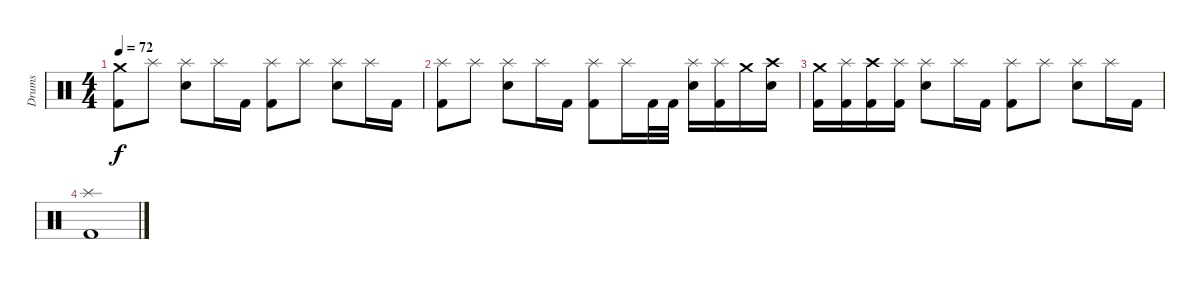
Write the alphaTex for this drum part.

\track ("Drums" "Drums") {instrument percussion}
\staff {score}
\articulation defaults
\ts (4 4)
\tempo 72
\clef neutral
\ks c
("Crash medium (hit)" "Kick (hit) 2").8{dy f} "Splash (hit)".8 ("Splash (hit)" "Electric Snare (hit)").8 "Splash (hit)".16 "Kick (hit) 2".16 ("Splash (hit)" "Kick (hit) 2").8 "Splash (hit)".8 ("Splash (hit)" "Electric Snare (hit)").8 "Splash (hit)".16 "Kick (hit) 2".16 |
("Splash (hit)" "Kick (hit) 2").8 "Splash (hit)".8 ("Splash (hit)" "Electric Snare (hit)").8 "Splash (hit)".16 "Kick (hit) 2".16 ("Splash (hit)" "Kick (hit) 2").8 "Splash (hit)".16 "Kick (hit) 2".32 "Kick (hit) 2".32 ("Splash (hit)" "Electric Snare (hit)").16 ("Splash (hit)" "Kick (hit) 2").16 "Crash medium (hit)".16 ("Crash high (hit)" "Electric Snare (hit)").16 |
("Crash medium (hit)" "Kick (hit) 2").16 ("Splash (hit)" "Kick (hit) 2").16 ("Crash high (hit)" "Kick (hit) 2").16 ("Splash (hit)" "Kick (hit) 2").16 ("Splash (hit)" "Electric Snare (hit)").8 "Splash (hit)".16 "Kick (hit) 2".16 ("Splash (hit)" "Kick (hit) 2").8 "Splash (hit)".8 ("Splash (hit)" "Electric Snare (hit)").8 "Splash (hit)".16 "Kick (hit) 2".16 |
("Splash (hit)" "Kick (hit) 2").1
